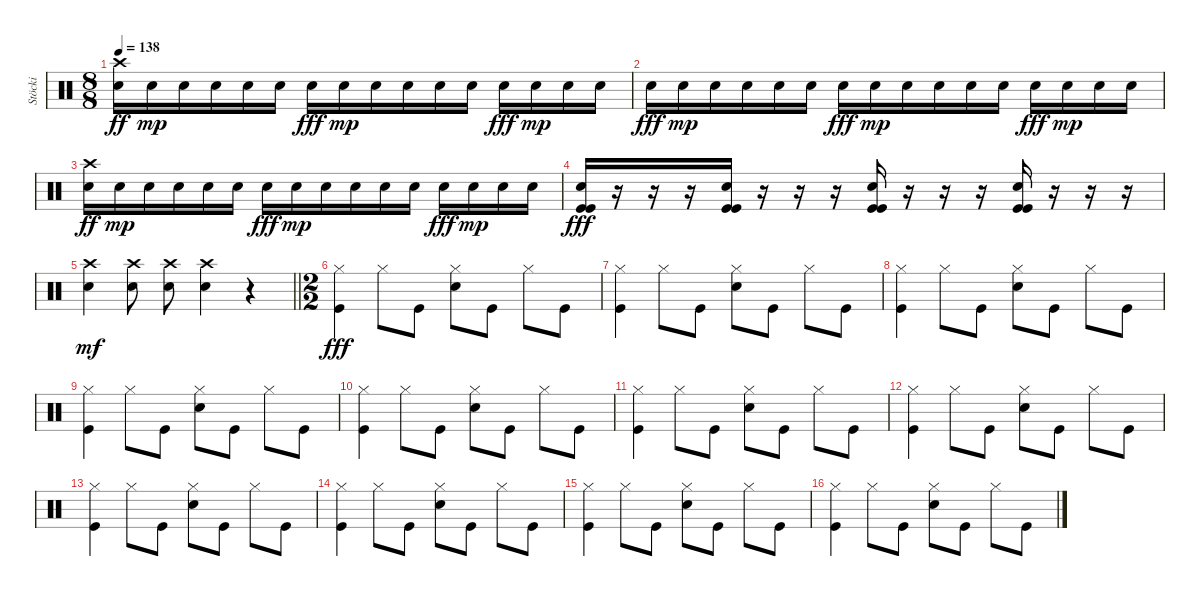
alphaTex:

\track ("Stöcki" "Stöcki") {instrument percussion}
\staff {score}
\articulation defaults
\ts (8 8)
\tempo 138
\clef neutral
\ks c
("Snare (hit) 2" "Crash high (hit)").16{dy ff} "Snare (hit) 2".16{dy mp} "Snare (hit) 2".16 "Snare (hit) 2".16 "Snare (hit) 2".16 "Snare (hit) 2".16 "Snare (hit) 2".16{dy fff} "Snare (hit) 2".16{dy mp} "Snare (hit) 2".16 "Snare (hit) 2".16 "Snare (hit) 2".16 "Snare (hit) 2".16 "Snare (hit) 2".16{dy fff} "Snare (hit) 2".16{dy mp} "Snare (hit) 2".16 "Snare (hit) 2".16 |
"Snare (hit) 2".16{dy fff} "Snare (hit) 2".16{dy mp} "Snare (hit) 2".16 "Snare (hit) 2".16 "Snare (hit) 2".16 "Snare (hit) 2".16 "Snare (hit) 2".16{dy fff} "Snare (hit) 2".16{dy mp} "Snare (hit) 2".16 "Snare (hit) 2".16 "Snare (hit) 2".16 "Snare (hit) 2".16 "Snare (hit) 2".16{dy fff} "Snare (hit) 2".16{dy mp} "Snare (hit) 2".16 "Snare (hit) 2".16 |
("Snare (hit) 2" "Crash high (hit)").16{dy ff} "Snare (hit) 2".16{dy mp} "Snare (hit) 2".16 "Snare (hit) 2".16 "Snare (hit) 2".16 "Snare (hit) 2".16 "Snare (hit) 2".16{dy fff} "Snare (hit) 2".16{dy mp} "Snare (hit) 2".16 "Snare (hit) 2".16 "Snare (hit) 2".16 "Snare (hit) 2".16 "Snare (hit) 2".16{dy fff} "Snare (hit) 2".16{dy mp} "Snare (hit) 2".16 "Snare (hit) 2".16 |
("Kick (hit)" "Snare (hit) 2" "Kick (hit)").16{dy fff} r.16 r.16 r.16 ("Kick (hit)" "Snare (hit) 2" "Kick (hit)").16 r.16 r.16 r.16 ("Kick (hit)" "Snare (hit) 2" "Kick (hit)").16 r.16 r.16 r.16 ("Kick (hit)" "Snare (hit) 2" "Kick (hit)").16 r.16 r.16 r.16 |
\barLineRight lightlight
("Snare (hit) 2" "Crash high (hit)").4{dy mf} ("Snare (hit) 2" "Crash high (hit)").8 ("Snare (hit) 2" "Crash high (hit)").8 ("Snare (hit) 2" "Crash high (hit)").4 r.4 |
\ts (2 2)
("Hi-Hat (closed)" "Kick (hit)").4{dy fff} "Hi-Hat (closed)".8 "Kick (hit)".8 ("Hi-Hat (closed)" "Snare (hit) 2").8 "Kick (hit)".8 "Hi-Hat (closed)".8 "Kick (hit)".8 |
("Hi-Hat (closed)" "Kick (hit)").4 "Hi-Hat (closed)".8 "Kick (hit)".8 ("Hi-Hat (closed)" "Snare (hit) 2").8 "Kick (hit)".8 "Hi-Hat (closed)".8 "Kick (hit)".8 |
("Hi-Hat (closed)" "Kick (hit)").4 "Hi-Hat (closed)".8 "Kick (hit)".8 ("Hi-Hat (closed)" "Snare (hit) 2").8 "Kick (hit)".8 "Hi-Hat (closed)".8 "Kick (hit)".8 |
("Hi-Hat (closed)" "Kick (hit)").4 "Hi-Hat (closed)".8 "Kick (hit)".8 ("Hi-Hat (closed)" "Snare (hit) 2").8 "Kick (hit)".8 "Hi-Hat (closed)".8 "Kick (hit)".8 |
("Hi-Hat (closed)" "Kick (hit)").4 "Hi-Hat (closed)".8 "Kick (hit)".8 ("Hi-Hat (closed)" "Snare (hit) 2").8 "Kick (hit)".8 "Hi-Hat (closed)".8 "Kick (hit)".8 |
("Hi-Hat (closed)" "Kick (hit)").4 "Hi-Hat (closed)".8 "Kick (hit)".8 ("Hi-Hat (closed)" "Snare (hit) 2").8 "Kick (hit)".8 "Hi-Hat (closed)".8 "Kick (hit)".8 |
("Hi-Hat (closed)" "Kick (hit)").4 "Hi-Hat (closed)".8 "Kick (hit)".8 ("Hi-Hat (closed)" "Snare (hit) 2").8 "Kick (hit)".8 "Hi-Hat (closed)".8 "Kick (hit)".8 |
("Hi-Hat (closed)" "Kick (hit)").4 "Hi-Hat (closed)".8 "Kick (hit)".8 ("Hi-Hat (closed)" "Snare (hit) 2").8 "Kick (hit)".8 "Hi-Hat (closed)".8 "Kick (hit)".8 |
("Hi-Hat (closed)" "Kick (hit)").4 "Hi-Hat (closed)".8 "Kick (hit)".8 ("Hi-Hat (closed)" "Snare (hit) 2").8 "Kick (hit)".8 "Hi-Hat (closed)".8 "Kick (hit)".8 |
("Hi-Hat (closed)" "Kick (hit)").4 "Hi-Hat (closed)".8 "Kick (hit)".8 ("Hi-Hat (closed)" "Snare (hit) 2").8 "Kick (hit)".8 "Hi-Hat (closed)".8 "Kick (hit)".8 |
("Hi-Hat (closed)" "Kick (hit)").4 "Hi-Hat (closed)".8 "Kick (hit)".8 ("Hi-Hat (closed)" "Snare (hit) 2").8 "Kick (hit)".8 "Hi-Hat (closed)".8 "Kick (hit)".8
